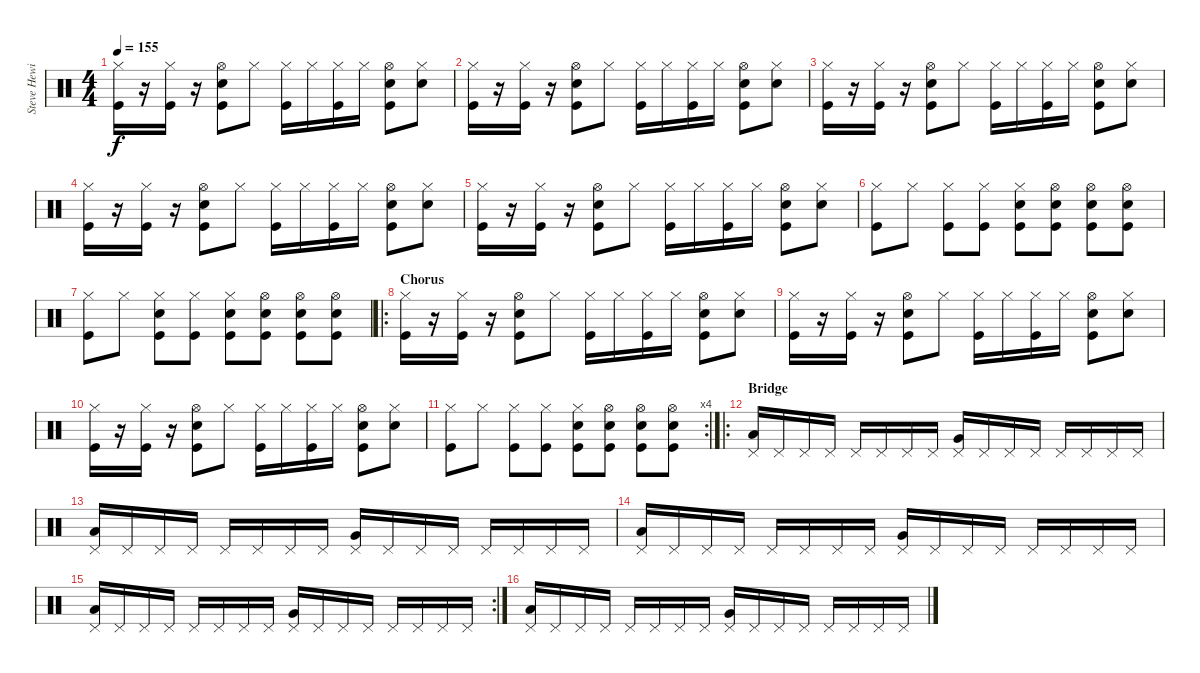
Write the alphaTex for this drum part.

\track ("Steve Hewitt" "Steve Hewi") {instrument percussion}
\staff {score}
\articulation defaults
\ts (4 4)
\tempo 155
\clef neutral
\ks c
("Hi-Hat (closed)" "Kick (hit)").16{dy f} r.16 ("Hi-Hat (closed)" "Kick (hit)").16 r.16 ("Snare (hit) 2" "Hi-Hat (open)" "Kick (hit)").8 "Hi-Hat (closed)".8 ("Hi-Hat (closed)" "Kick (hit)").16 "Hi-Hat (closed)".16 ("Hi-Hat (closed)" "Kick (hit)").16 "Hi-Hat (closed)".16 ("Snare (hit) 2" "Hi-Hat (open)" "Kick (hit)").8 ("Snare (hit) 2" "Hi-Hat (closed)").8 |
("Hi-Hat (closed)" "Kick (hit)").16 r.16 ("Hi-Hat (closed)" "Kick (hit)").16 r.16 ("Snare (hit) 2" "Hi-Hat (open)" "Kick (hit)").8 "Hi-Hat (closed)".8 ("Hi-Hat (closed)" "Kick (hit)").16 "Hi-Hat (closed)".16 ("Hi-Hat (closed)" "Kick (hit)").16 "Hi-Hat (closed)".16 ("Snare (hit) 2" "Hi-Hat (open)" "Kick (hit)").8 ("Snare (hit) 2" "Hi-Hat (closed)").8 |
("Hi-Hat (closed)" "Kick (hit)").16 r.16 ("Hi-Hat (closed)" "Kick (hit)").16 r.16 ("Snare (hit) 2" "Hi-Hat (open)" "Kick (hit)").8 "Hi-Hat (closed)".8 ("Hi-Hat (closed)" "Kick (hit)").16 "Hi-Hat (closed)".16 ("Hi-Hat (closed)" "Kick (hit)").16 "Hi-Hat (closed)".16 ("Snare (hit) 2" "Hi-Hat (open)" "Kick (hit)").8 ("Snare (hit) 2" "Hi-Hat (closed)").8 |
("Hi-Hat (closed)" "Kick (hit)").16 r.16 ("Hi-Hat (closed)" "Kick (hit)").16 r.16 ("Snare (hit) 2" "Hi-Hat (open)" "Kick (hit)").8 "Hi-Hat (closed)".8 ("Hi-Hat (closed)" "Kick (hit)").16 "Hi-Hat (closed)".16 ("Hi-Hat (closed)" "Kick (hit)").16 "Hi-Hat (closed)".16 ("Snare (hit) 2" "Hi-Hat (open)" "Kick (hit)").8 ("Snare (hit) 2" "Hi-Hat (closed)").8 |
("Hi-Hat (closed)" "Kick (hit)").16 r.16 ("Hi-Hat (closed)" "Kick (hit)").16 r.16 ("Snare (hit) 2" "Hi-Hat (open)" "Kick (hit)").8 "Hi-Hat (closed)".8 ("Hi-Hat (closed)" "Kick (hit)").16 "Hi-Hat (closed)".16 ("Hi-Hat (closed)" "Kick (hit)").16 "Hi-Hat (closed)".16 ("Snare (hit) 2" "Hi-Hat (open)" "Kick (hit)").8 ("Snare (hit) 2" "Hi-Hat (closed)").8 |
("Hi-Hat (closed)" "Kick (hit)").8 "Hi-Hat (closed)".8 ("Hi-Hat (closed)" "Kick (hit)").8 ("Hi-Hat (closed)" "Kick (hit)").8 ("Snare (hit) 2" "Hi-Hat (closed)" "Kick (hit)").8 ("Snare (hit) 2" "Hi-Hat (open)" "Kick (hit)").8 ("Snare (hit) 2" "Hi-Hat (open)" "Kick (hit)").8 ("Snare (hit) 2" "Hi-Hat (open)" "Kick (hit)").8 |
("Hi-Hat (closed)" "Kick (hit)").8 "Hi-Hat (closed)".8 ("Snare (hit) 2" "Hi-Hat (closed)" "Kick (hit)").8 ("Hi-Hat (closed)" "Kick (hit)").8 ("Snare (hit) 2" "Hi-Hat (closed)" "Kick (hit)").8 ("Snare (hit) 2" "Hi-Hat (open)" "Kick (hit)").8 ("Snare (hit) 2" "Hi-Hat (open)" "Kick (hit)").8 ("Snare (hit) 2" "Hi-Hat (open)" "Kick (hit)").8 |
\ro
\section ("" "Chorus")
("Hi-Hat (closed)" "Kick (hit)").16 r.16 ("Hi-Hat (closed)" "Kick (hit)").16 r.16 ("Snare (hit) 2" "Hi-Hat (open)" "Kick (hit)").8 "Hi-Hat (closed)".8 ("Hi-Hat (closed)" "Kick (hit)").16 "Hi-Hat (closed)".16 ("Hi-Hat (closed)" "Kick (hit)").16 "Hi-Hat (closed)".16 ("Snare (hit) 2" "Hi-Hat (open)" "Kick (hit)").8 ("Snare (hit) 2" "Hi-Hat (closed)").8 |
("Hi-Hat (closed)" "Kick (hit)").16 r.16 ("Hi-Hat (closed)" "Kick (hit)").16 r.16 ("Snare (hit) 2" "Hi-Hat (open)" "Kick (hit)").8 "Hi-Hat (closed)".8 ("Hi-Hat (closed)" "Kick (hit)").16 "Hi-Hat (closed)".16 ("Hi-Hat (closed)" "Kick (hit)").16 "Hi-Hat (closed)".16 ("Snare (hit) 2" "Hi-Hat (open)" "Kick (hit)").8 ("Snare (hit) 2" "Hi-Hat (closed)").8 |
("Hi-Hat (closed)" "Kick (hit)").16 r.16 ("Hi-Hat (closed)" "Kick (hit)").16 r.16 ("Snare (hit) 2" "Hi-Hat (open)" "Kick (hit)").8 "Hi-Hat (closed)".8 ("Hi-Hat (closed)" "Kick (hit)").16 "Hi-Hat (closed)".16 ("Hi-Hat (closed)" "Kick (hit)").16 "Hi-Hat (closed)".16 ("Snare (hit) 2" "Hi-Hat (open)" "Kick (hit)").8 ("Snare (hit) 2" "Hi-Hat (closed)").8 |
\rc 4
("Hi-Hat (closed)" "Kick (hit)").8 "Hi-Hat (closed)".8 ("Hi-Hat (closed)" "Kick (hit)").8 ("Hi-Hat (closed)" "Kick (hit)").8 ("Snare (hit) 2" "Hi-Hat (closed)" "Kick (hit)").8 ("Snare (hit) 2" "Hi-Hat (open)" "Kick (hit)").8 ("Snare (hit) 2" "Hi-Hat (open)" "Kick (hit)").8 ("Snare (hit) 2" "Hi-Hat (open)" "Kick (hit)").8 |
\ro
\section ("" "Bridge")
("Pedal Hi-Hat (hit)" "Low Tom (hit)").16 "Pedal Hi-Hat (hit)".16 "Pedal Hi-Hat (hit)".16 "Pedal Hi-Hat (hit)".16 "Pedal Hi-Hat (hit)".16 "Pedal Hi-Hat (hit)".16 "Pedal Hi-Hat (hit)".16 "Pedal Hi-Hat (hit)".16 ("Pedal Hi-Hat (hit)" "Very Low Tom (hit)").16 "Pedal Hi-Hat (hit)".16 "Pedal Hi-Hat (hit)".16 "Pedal Hi-Hat (hit)".16 "Pedal Hi-Hat (hit)".16 "Pedal Hi-Hat (hit)".16 "Pedal Hi-Hat (hit)".16 "Pedal Hi-Hat (hit)".16 |
("Pedal Hi-Hat (hit)" "Low Tom (hit)").16 "Pedal Hi-Hat (hit)".16 "Pedal Hi-Hat (hit)".16 "Pedal Hi-Hat (hit)".16 "Pedal Hi-Hat (hit)".16 "Pedal Hi-Hat (hit)".16 "Pedal Hi-Hat (hit)".16 "Pedal Hi-Hat (hit)".16 ("Pedal Hi-Hat (hit)" "Very Low Tom (hit)").16 "Pedal Hi-Hat (hit)".16 "Pedal Hi-Hat (hit)".16 "Pedal Hi-Hat (hit)".16 "Pedal Hi-Hat (hit)".16 "Pedal Hi-Hat (hit)".16 "Pedal Hi-Hat (hit)".16 "Pedal Hi-Hat (hit)".16 |
("Pedal Hi-Hat (hit)" "Low Tom (hit)").16 "Pedal Hi-Hat (hit)".16 "Pedal Hi-Hat (hit)".16 "Pedal Hi-Hat (hit)".16 "Pedal Hi-Hat (hit)".16 "Pedal Hi-Hat (hit)".16 "Pedal Hi-Hat (hit)".16 "Pedal Hi-Hat (hit)".16 ("Pedal Hi-Hat (hit)" "Very Low Tom (hit)").16 "Pedal Hi-Hat (hit)".16 "Pedal Hi-Hat (hit)".16 "Pedal Hi-Hat (hit)".16 "Pedal Hi-Hat (hit)".16 "Pedal Hi-Hat (hit)".16 "Pedal Hi-Hat (hit)".16 "Pedal Hi-Hat (hit)".16 |
\rc 2
("Pedal Hi-Hat (hit)" "Low Tom (hit)").16 "Pedal Hi-Hat (hit)".16 "Pedal Hi-Hat (hit)".16 "Pedal Hi-Hat (hit)".16 "Pedal Hi-Hat (hit)".16 "Pedal Hi-Hat (hit)".16 "Pedal Hi-Hat (hit)".16 "Pedal Hi-Hat (hit)".16 ("Pedal Hi-Hat (hit)" "Very Low Tom (hit)").16 "Pedal Hi-Hat (hit)".16 "Pedal Hi-Hat (hit)".16 "Pedal Hi-Hat (hit)".16 "Pedal Hi-Hat (hit)".16 "Pedal Hi-Hat (hit)".16 "Pedal Hi-Hat (hit)".16 "Pedal Hi-Hat (hit)".16 |
("Pedal Hi-Hat (hit)" "Low Tom (hit)").16 "Pedal Hi-Hat (hit)".16 "Pedal Hi-Hat (hit)".16 "Pedal Hi-Hat (hit)".16 "Pedal Hi-Hat (hit)".16 "Pedal Hi-Hat (hit)".16 "Pedal Hi-Hat (hit)".16 "Pedal Hi-Hat (hit)".16 ("Pedal Hi-Hat (hit)" "Very Low Tom (hit)").16 "Pedal Hi-Hat (hit)".16 "Pedal Hi-Hat (hit)".16 "Pedal Hi-Hat (hit)".16 "Pedal Hi-Hat (hit)".16 "Pedal Hi-Hat (hit)".16 "Pedal Hi-Hat (hit)".16 "Pedal Hi-Hat (hit)".16
